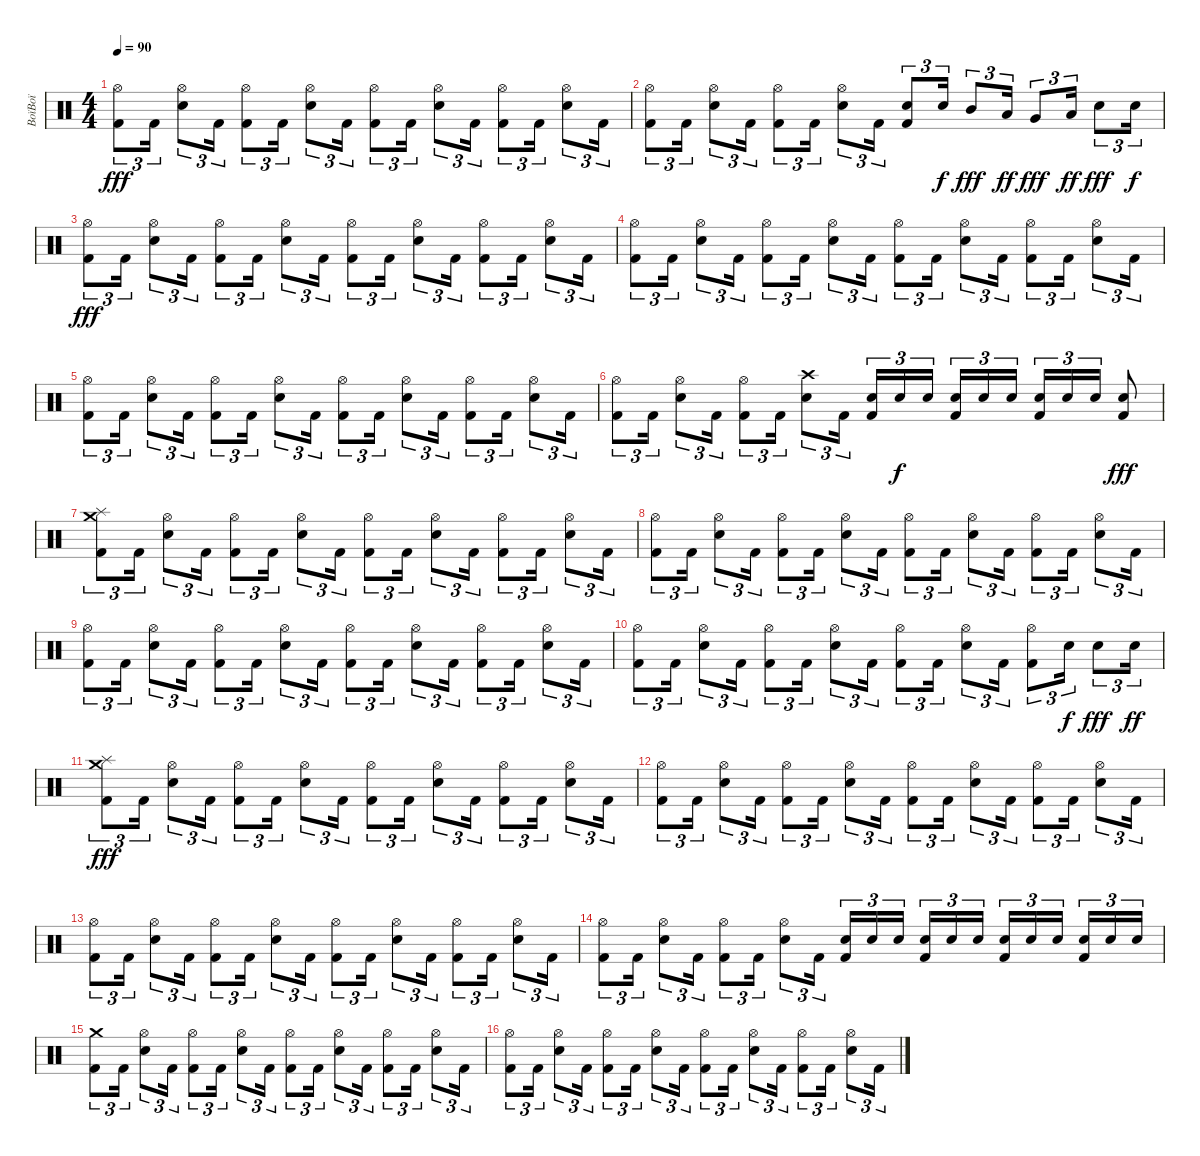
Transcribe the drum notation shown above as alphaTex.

\track ("BoïBoï" "BoïBoï") {instrument percussion}
\staff {score}
\articulation defaults
\ts (4 4)
\tempo 90
\clef neutral
\ks c
("Hi-Hat (open)" "Kick (hit) 2").8{tu (3 2) dy fff} "Kick (hit) 2".16{tu (3 2)} ("Hi-Hat (open)" "Electric Snare (hit)").8{tu (3 2)} "Kick (hit) 2".16{tu (3 2)} ("Hi-Hat (open)" "Kick (hit) 2").8{tu (3 2)} "Kick (hit) 2".16{tu (3 2)} ("Hi-Hat (open)" "Electric Snare (hit)").8{tu (3 2)} "Kick (hit) 2".16{tu (3 2)} ("Hi-Hat (open)" "Kick (hit) 2").8{tu (3 2)} "Kick (hit) 2".16{tu (3 2)} ("Hi-Hat (open)" "Electric Snare (hit)").8{tu (3 2)} "Kick (hit) 2".16{tu (3 2)} ("Hi-Hat (open)" "Kick (hit) 2").8{tu (3 2)} "Kick (hit) 2".16{tu (3 2)} ("Hi-Hat (open)" "Electric Snare (hit)").8{tu (3 2)} "Kick (hit) 2".16{tu (3 2)} |
("Hi-Hat (open)" "Kick (hit) 2").8{tu (3 2)} "Kick (hit) 2".16{tu (3 2)} ("Hi-Hat (open)" "Electric Snare (hit)").8{tu (3 2)} "Kick (hit) 2".16{tu (3 2)} ("Hi-Hat (open)" "Kick (hit) 2").8{tu (3 2)} "Kick (hit) 2".16{tu (3 2)} ("Hi-Hat (open)" "Electric Snare (hit)").8{tu (3 2)} "Kick (hit) 2".16{tu (3 2)} ("Electric Snare (hit)" "Kick (hit) 2").8{tu (3 2)} "Electric Snare (hit)".16{tu (3 2) dy f} "Mid Tom (hit)".8{tu (3 2) dy fff} "Low Tom (hit)".16{tu (3 2) dy ff} "Very Low Tom (hit)".8{tu (3 2) dy fff} "Low Floor Tom (hit)".16{tu (3 2) dy ff} "Electric Snare (hit)".8{tu (3 2) dy fff} "Electric Snare (hit)".16{tu (3 2) dy f} |
("Hi-Hat (open)" "Kick (hit) 2").8{tu (3 2) dy fff} "Kick (hit) 2".16{tu (3 2)} ("Hi-Hat (open)" "Electric Snare (hit)").8{tu (3 2)} "Kick (hit) 2".16{tu (3 2)} ("Hi-Hat (open)" "Kick (hit) 2").8{tu (3 2)} "Kick (hit) 2".16{tu (3 2)} ("Hi-Hat (open)" "Electric Snare (hit)").8{tu (3 2)} "Kick (hit) 2".16{tu (3 2)} ("Hi-Hat (open)" "Kick (hit) 2").8{tu (3 2)} "Kick (hit) 2".16{tu (3 2)} ("Hi-Hat (open)" "Electric Snare (hit)").8{tu (3 2)} "Kick (hit) 2".16{tu (3 2)} ("Hi-Hat (open)" "Kick (hit) 2").8{tu (3 2)} "Kick (hit) 2".16{tu (3 2)} ("Hi-Hat (open)" "Electric Snare (hit)").8{tu (3 2)} "Kick (hit) 2".16{tu (3 2)} |
("Hi-Hat (open)" "Kick (hit) 2").8{tu (3 2)} "Kick (hit) 2".16{tu (3 2)} ("Hi-Hat (open)" "Electric Snare (hit)").8{tu (3 2)} "Kick (hit) 2".16{tu (3 2)} ("Hi-Hat (open)" "Kick (hit) 2").8{tu (3 2)} "Kick (hit) 2".16{tu (3 2)} ("Hi-Hat (open)" "Electric Snare (hit)").8{tu (3 2)} "Kick (hit) 2".16{tu (3 2)} ("Hi-Hat (open)" "Kick (hit) 2").8{tu (3 2)} "Kick (hit) 2".16{tu (3 2)} ("Hi-Hat (open)" "Electric Snare (hit)").8{tu (3 2)} "Kick (hit) 2".16{tu (3 2)} ("Hi-Hat (open)" "Kick (hit) 2").8{tu (3 2)} "Kick (hit) 2".16{tu (3 2)} ("Hi-Hat (open)" "Electric Snare (hit)").8{tu (3 2)} "Kick (hit) 2".16{tu (3 2)} |
("Hi-Hat (open)" "Kick (hit) 2").8{tu (3 2)} "Kick (hit) 2".16{tu (3 2)} ("Hi-Hat (open)" "Electric Snare (hit)").8{tu (3 2)} "Kick (hit) 2".16{tu (3 2)} ("Hi-Hat (open)" "Kick (hit) 2").8{tu (3 2)} "Kick (hit) 2".16{tu (3 2)} ("Hi-Hat (open)" "Electric Snare (hit)").8{tu (3 2)} "Kick (hit) 2".16{tu (3 2)} ("Hi-Hat (open)" "Kick (hit) 2").8{tu (3 2)} "Kick (hit) 2".16{tu (3 2)} ("Hi-Hat (open)" "Electric Snare (hit)").8{tu (3 2)} "Kick (hit) 2".16{tu (3 2)} ("Hi-Hat (open)" "Kick (hit) 2").8{tu (3 2)} "Kick (hit) 2".16{tu (3 2)} ("Hi-Hat (open)" "Electric Snare (hit)").8{tu (3 2)} "Kick (hit) 2".16{tu (3 2)} |
("Hi-Hat (open)" "Kick (hit) 2").8{tu (3 2)} "Kick (hit) 2".16{tu (3 2)} ("Hi-Hat (open)" "Electric Snare (hit)").8{tu (3 2)} "Kick (hit) 2".16{tu (3 2)} ("Hi-Hat (open)" "Kick (hit) 2").8{tu (3 2)} "Kick (hit) 2".16{tu (3 2)} ("Crash high (hit)" "Electric Snare (hit)").8{tu (3 2)} "Kick (hit) 2".16{tu (3 2)} ("Electric Snare (hit)" "Kick (hit) 2").16{tu (3 2)} "Electric Snare (hit)".16{tu (3 2) dy f} "Electric Snare (hit)".16{tu (3 2) beam splitsecondary} ("Electric Snare (hit)" "Kick (hit) 2").16{tu (3 2)} "Electric Snare (hit)".16{tu (3 2)} "Electric Snare (hit)".16{tu (3 2)} ("Electric Snare (hit)" "Kick (hit) 2").16{tu (3 2)} "Electric Snare (hit)".16{tu (3 2)} "Electric Snare (hit)".16{tu (3 2)} ("Electric Snare (hit)" "Kick (hit) 2").8{dy fff} |
("Splash (hit)" "Crash medium (hit)" "Kick (hit) 2").8{tu (3 2)} "Kick (hit) 2".16{tu (3 2)} ("Hi-Hat (open)" "Electric Snare (hit)").8{tu (3 2)} "Kick (hit) 2".16{tu (3 2)} ("Hi-Hat (open)" "Kick (hit) 2").8{tu (3 2)} "Kick (hit) 2".16{tu (3 2)} ("Hi-Hat (open)" "Electric Snare (hit)").8{tu (3 2)} "Kick (hit) 2".16{tu (3 2)} ("Hi-Hat (open)" "Kick (hit) 2").8{tu (3 2)} "Kick (hit) 2".16{tu (3 2)} ("Hi-Hat (open)" "Electric Snare (hit)").8{tu (3 2)} "Kick (hit) 2".16{tu (3 2)} ("Hi-Hat (open)" "Kick (hit) 2").8{tu (3 2)} "Kick (hit) 2".16{tu (3 2)} ("Hi-Hat (open)" "Electric Snare (hit)").8{tu (3 2)} "Kick (hit) 2".16{tu (3 2)} |
("Hi-Hat (open)" "Kick (hit) 2").8{tu (3 2)} "Kick (hit) 2".16{tu (3 2)} ("Hi-Hat (open)" "Electric Snare (hit)").8{tu (3 2)} "Kick (hit) 2".16{tu (3 2)} ("Hi-Hat (open)" "Kick (hit) 2").8{tu (3 2)} "Kick (hit) 2".16{tu (3 2)} ("Hi-Hat (open)" "Electric Snare (hit)").8{tu (3 2)} "Kick (hit) 2".16{tu (3 2)} ("Hi-Hat (open)" "Kick (hit) 2").8{tu (3 2)} "Kick (hit) 2".16{tu (3 2)} ("Hi-Hat (open)" "Electric Snare (hit)").8{tu (3 2)} "Kick (hit) 2".16{tu (3 2)} ("Hi-Hat (open)" "Kick (hit) 2").8{tu (3 2)} "Kick (hit) 2".16{tu (3 2)} ("Hi-Hat (open)" "Electric Snare (hit)").8{tu (3 2)} "Kick (hit) 2".16{tu (3 2)} |
("Hi-Hat (open)" "Kick (hit) 2").8{tu (3 2)} "Kick (hit) 2".16{tu (3 2)} ("Hi-Hat (open)" "Electric Snare (hit)").8{tu (3 2)} "Kick (hit) 2".16{tu (3 2)} ("Hi-Hat (open)" "Kick (hit) 2").8{tu (3 2)} "Kick (hit) 2".16{tu (3 2)} ("Hi-Hat (open)" "Electric Snare (hit)").8{tu (3 2)} "Kick (hit) 2".16{tu (3 2)} ("Hi-Hat (open)" "Kick (hit) 2").8{tu (3 2)} "Kick (hit) 2".16{tu (3 2)} ("Hi-Hat (open)" "Electric Snare (hit)").8{tu (3 2)} "Kick (hit) 2".16{tu (3 2)} ("Hi-Hat (open)" "Kick (hit) 2").8{tu (3 2)} "Kick (hit) 2".16{tu (3 2)} ("Hi-Hat (open)" "Electric Snare (hit)").8{tu (3 2)} "Kick (hit) 2".16{tu (3 2)} |
("Hi-Hat (open)" "Kick (hit) 2").8{tu (3 2)} "Kick (hit) 2".16{tu (3 2)} ("Hi-Hat (open)" "Electric Snare (hit)").8{tu (3 2)} "Kick (hit) 2".16{tu (3 2)} ("Hi-Hat (open)" "Kick (hit) 2").8{tu (3 2)} "Kick (hit) 2".16{tu (3 2)} ("Hi-Hat (open)" "Electric Snare (hit)").8{tu (3 2)} "Kick (hit) 2".16{tu (3 2)} ("Hi-Hat (open)" "Kick (hit) 2").8{tu (3 2)} "Kick (hit) 2".16{tu (3 2)} ("Hi-Hat (open)" "Electric Snare (hit)").8{tu (3 2)} "Kick (hit) 2".16{tu (3 2)} ("Hi-Hat (open)" "Kick (hit) 2").8{tu (3 2)} "Electric Snare (hit)".16{tu (3 2) dy f} "Electric Snare (hit)".8{tu (3 2) dy fff} "Electric Snare (hit)".16{tu (3 2) dy ff} |
("Splash (hit)" "Crash medium (hit)" "Kick (hit) 2").8{tu (3 2) dy fff} "Kick (hit) 2".16{tu (3 2)} ("Hi-Hat (open)" "Electric Snare (hit)").8{tu (3 2)} "Kick (hit) 2".16{tu (3 2)} ("Hi-Hat (open)" "Kick (hit) 2").8{tu (3 2)} "Kick (hit) 2".16{tu (3 2)} ("Hi-Hat (open)" "Electric Snare (hit)").8{tu (3 2)} "Kick (hit) 2".16{tu (3 2)} ("Hi-Hat (open)" "Kick (hit) 2").8{tu (3 2)} "Kick (hit) 2".16{tu (3 2)} ("Hi-Hat (open)" "Electric Snare (hit)").8{tu (3 2)} "Kick (hit) 2".16{tu (3 2)} ("Hi-Hat (open)" "Kick (hit) 2").8{tu (3 2)} "Kick (hit) 2".16{tu (3 2)} ("Hi-Hat (open)" "Electric Snare (hit)").8{tu (3 2)} "Kick (hit) 2".16{tu (3 2)} |
("Hi-Hat (open)" "Kick (hit) 2").8{tu (3 2)} "Kick (hit) 2".16{tu (3 2)} ("Hi-Hat (open)" "Electric Snare (hit)").8{tu (3 2)} "Kick (hit) 2".16{tu (3 2)} ("Hi-Hat (open)" "Kick (hit) 2").8{tu (3 2)} "Kick (hit) 2".16{tu (3 2)} ("Hi-Hat (open)" "Electric Snare (hit)").8{tu (3 2)} "Kick (hit) 2".16{tu (3 2)} ("Hi-Hat (open)" "Kick (hit) 2").8{tu (3 2)} "Kick (hit) 2".16{tu (3 2)} ("Hi-Hat (open)" "Electric Snare (hit)").8{tu (3 2)} "Kick (hit) 2".16{tu (3 2)} ("Hi-Hat (open)" "Kick (hit) 2").8{tu (3 2)} "Kick (hit) 2".16{tu (3 2)} ("Hi-Hat (open)" "Electric Snare (hit)").8{tu (3 2)} "Kick (hit) 2".16{tu (3 2)} |
("Hi-Hat (open)" "Kick (hit) 2").8{tu (3 2)} "Kick (hit) 2".16{tu (3 2)} ("Hi-Hat (open)" "Electric Snare (hit)").8{tu (3 2)} "Kick (hit) 2".16{tu (3 2)} ("Hi-Hat (open)" "Kick (hit) 2").8{tu (3 2)} "Kick (hit) 2".16{tu (3 2)} ("Hi-Hat (open)" "Electric Snare (hit)").8{tu (3 2)} "Kick (hit) 2".16{tu (3 2)} ("Hi-Hat (open)" "Kick (hit) 2").8{tu (3 2)} "Kick (hit) 2".16{tu (3 2)} ("Hi-Hat (open)" "Electric Snare (hit)").8{tu (3 2)} "Kick (hit) 2".16{tu (3 2)} ("Hi-Hat (open)" "Kick (hit) 2").8{tu (3 2)} "Kick (hit) 2".16{tu (3 2)} ("Hi-Hat (open)" "Electric Snare (hit)").8{tu (3 2)} "Kick (hit) 2".16{tu (3 2)} |
("Hi-Hat (open)" "Kick (hit) 2").8{tu (3 2)} "Kick (hit) 2".16{tu (3 2)} ("Hi-Hat (open)" "Electric Snare (hit)").8{tu (3 2)} "Kick (hit) 2".16{tu (3 2)} ("Hi-Hat (open)" "Kick (hit) 2").8{tu (3 2)} "Kick (hit) 2".16{tu (3 2)} ("Hi-Hat (open)" "Electric Snare (hit)").8{tu (3 2)} "Kick (hit) 2".16{tu (3 2)} ("Electric Snare (hit)" "Kick (hit) 2").16{tu (3 2)} "Electric Snare (hit)".16{tu (3 2)} "Electric Snare (hit)".16{tu (3 2) beam splitsecondary} ("Electric Snare (hit)" "Kick (hit) 2").16{tu (3 2)} "Electric Snare (hit)".16{tu (3 2)} "Electric Snare (hit)".16{tu (3 2)} ("Electric Snare (hit)" "Kick (hit) 2").16{tu (3 2)} "Electric Snare (hit)".16{tu (3 2)} "Electric Snare (hit)".16{tu (3 2) beam splitsecondary} ("Electric Snare (hit)" "Kick (hit) 2").16{tu (3 2)} "Electric Snare (hit)".16{tu (3 2)} "Electric Snare (hit)".16{tu (3 2)} |
("Crash medium (hit)" "Kick (hit) 2").8{tu (3 2)} "Kick (hit) 2".16{tu (3 2)} ("Hi-Hat (open)" "Electric Snare (hit)").8{tu (3 2)} "Kick (hit) 2".16{tu (3 2)} ("Hi-Hat (open)" "Kick (hit) 2").8{tu (3 2)} "Kick (hit) 2".16{tu (3 2)} ("Hi-Hat (open)" "Electric Snare (hit)").8{tu (3 2)} "Kick (hit) 2".16{tu (3 2)} ("Hi-Hat (open)" "Kick (hit) 2").8{tu (3 2)} "Kick (hit) 2".16{tu (3 2)} ("Hi-Hat (open)" "Electric Snare (hit)").8{tu (3 2)} "Kick (hit) 2".16{tu (3 2)} ("Hi-Hat (open)" "Kick (hit) 2").8{tu (3 2)} "Kick (hit) 2".16{tu (3 2)} ("Hi-Hat (open)" "Electric Snare (hit)").8{tu (3 2)} "Kick (hit) 2".16{tu (3 2)} |
("Hi-Hat (open)" "Kick (hit) 2").8{tu (3 2)} "Kick (hit) 2".16{tu (3 2)} ("Hi-Hat (open)" "Electric Snare (hit)").8{tu (3 2)} "Kick (hit) 2".16{tu (3 2)} ("Hi-Hat (open)" "Kick (hit) 2").8{tu (3 2)} "Kick (hit) 2".16{tu (3 2)} ("Hi-Hat (open)" "Electric Snare (hit)").8{tu (3 2)} "Kick (hit) 2".16{tu (3 2)} ("Hi-Hat (open)" "Kick (hit) 2").8{tu (3 2)} "Kick (hit) 2".16{tu (3 2)} ("Hi-Hat (open)" "Electric Snare (hit)").8{tu (3 2)} "Kick (hit) 2".16{tu (3 2)} ("Hi-Hat (open)" "Kick (hit) 2").8{tu (3 2)} "Kick (hit) 2".16{tu (3 2)} ("Hi-Hat (open)" "Electric Snare (hit)").8{tu (3 2)} "Kick (hit) 2".16{tu (3 2)}
